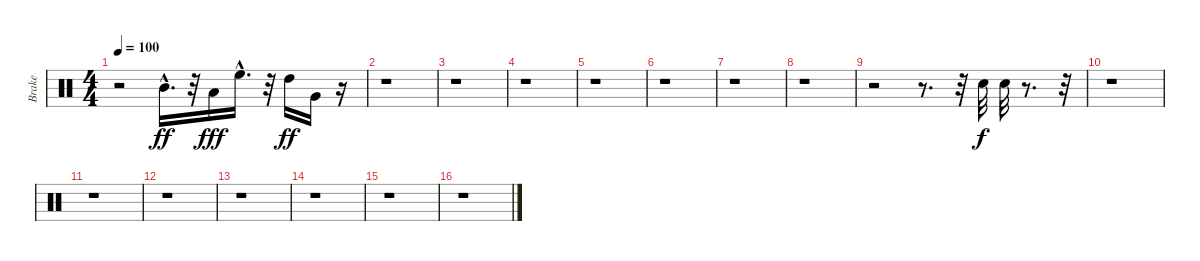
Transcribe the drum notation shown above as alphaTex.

\track ("Brake" "Brake") {instrument percussion}
\staff {score}
\articulation defaults
\ts (4 4)
\tempo 100
\clef neutral
\ks c
r.2{dy ff} "Mid Tom (hit)"{hac}.16{d} r.32 "Low Tom (hit)".16{dy fff} "High Floor Tom (hit)"{hac}.16{d} r.32 "High Tom (hit)".16{dy ff} "Very Low Tom (hit)".16 r.16 |
r.1 |
r.1 |
r.1 |
r.1 |
r.1 |
r.1 |
r.1 |
r.2 r.8{d} r.32 "Metronome (bell)".32{dy f} "Metronome (bell)".32 r.8{d} r.32 |
r.1 |
r.1 |
r.1 |
r.1 |
r.1 |
r.1 |
r.1
